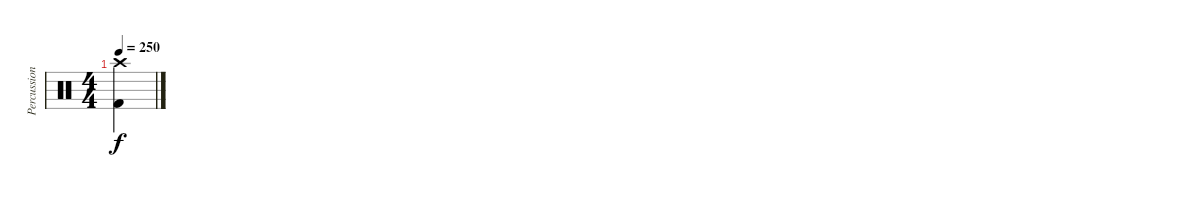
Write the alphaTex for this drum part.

\track ("Percussion" "Percussion") {instrument percussion}
\staff {score}
\articulation defaults
\ts (4 4)
\tempo 250
\clef neutral
\ks c
("Kick (hit) 2" "Crash high (hit)").4{dy f}
